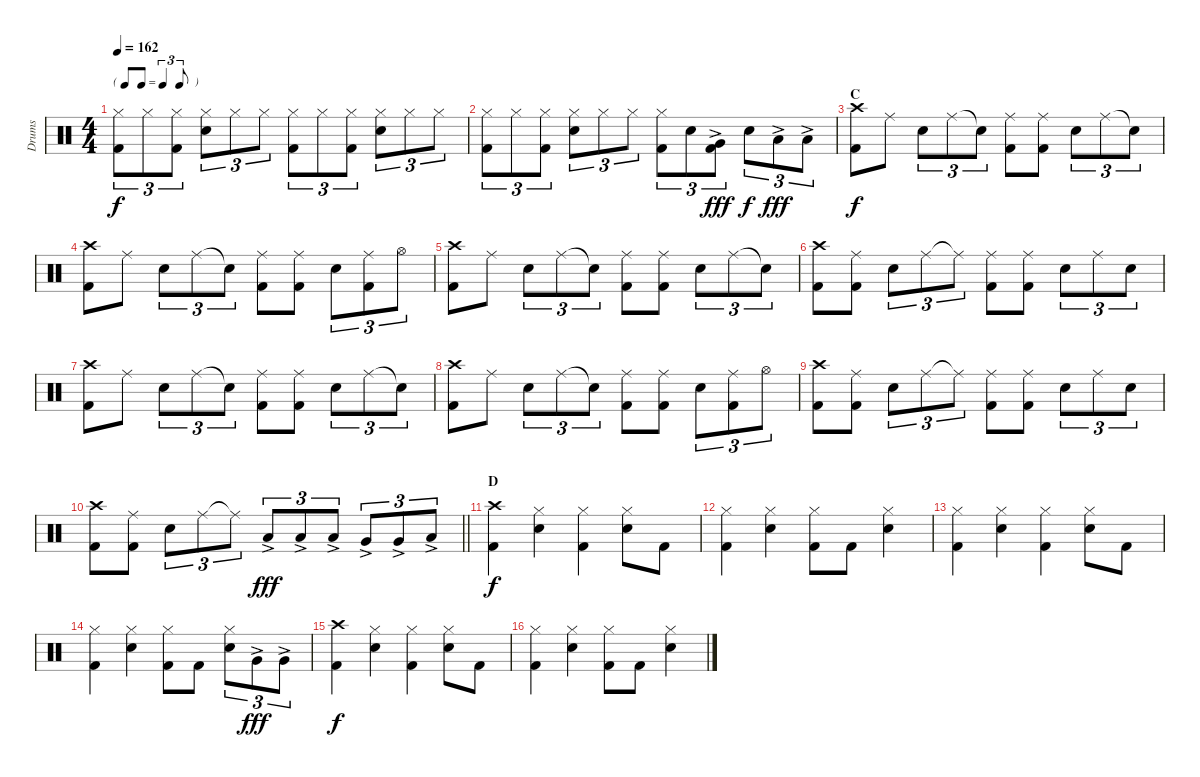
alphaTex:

\track ("Drums" "Drums") {instrument percussion}
\staff {score}
\articulation defaults
\ts (4 4)
\tf triplet8th
\tempo 162
\clef neutral
\ks c
("Hi-Hat (closed)" "Kick (hit) 2").8{tu (3 2) dy f} "Hi-Hat (closed)".8{tu (3 2)} ("Hi-Hat (closed)" "Kick (hit) 2").8{tu (3 2)} ("Hi-Hat (closed)" "Snare (hit) 2").8{tu (3 2)} "Hi-Hat (closed)".8{tu (3 2)} "Hi-Hat (closed)".8{tu (3 2)} ("Hi-Hat (closed)" "Kick (hit) 2").8{tu (3 2)} "Hi-Hat (closed)".8{tu (3 2)} ("Hi-Hat (closed)" "Kick (hit) 2").8{tu (3 2)} ("Hi-Hat (closed)" "Snare (hit) 2").8{tu (3 2)} "Hi-Hat (closed)".8{tu (3 2)} "Hi-Hat (closed)".8{tu (3 2)} |
("Hi-Hat (closed)" "Kick (hit) 2").8{tu (3 2)} "Hi-Hat (closed)".8{tu (3 2)} ("Hi-Hat (closed)" "Kick (hit) 2").8{tu (3 2)} ("Hi-Hat (closed)" "Snare (hit) 2").8{tu (3 2)} "Hi-Hat (closed)".8{tu (3 2)} "Hi-Hat (closed)".8{tu (3 2)} ("Hi-Hat (closed)" "Kick (hit) 2").8{tu (3 2)} "Snare (hit) 2".8{tu (3 2)} ("Very Low Tom (hit)"{ac} "Kick (hit) 2").8{tu (3 2) dy fff} "Snare (hit) 2".8{tu (3 2) dy f} "Low Tom (hit)"{ac}.8{tu (3 2) dy fff} "Low Tom (hit)"{ac}.8{tu (3 2)} |
\section ("" "C")
("Crash high (hit)" "Kick (hit) 2").8{dy f} "Ride (middle)".8 "Snare (hit) 2".8{tu (3 2)} "Ride (middle)".8{tu (3 2)} "Snare (hit)"{t}.8{tu (3 2)} ("Ride (middle)" "Kick (hit) 2").8 ("Ride (middle)" "Kick (hit) 2").8 "Snare (hit) 2".8{tu (3 2)} "Ride (middle)".8{tu (3 2)} "Snare (hit)"{t}.8{tu (3 2)} |
("Crash high (hit)" "Kick (hit) 2").8 "Ride (middle)".8 "Snare (hit) 2".8{tu (3 2)} "Ride (middle)".8{tu (3 2)} "Snare (hit)"{t}.8{tu (3 2)} ("Ride (middle)" "Kick (hit) 2").8 ("Ride (middle)" "Kick (hit) 2").8 "Snare (hit) 2".8{tu (3 2)} ("Ride (middle)" "Kick (hit) 2").8{tu (3 2)} "Hi-Hat (open)".8{tu (3 2)} |
("Crash high (hit)" "Kick (hit) 2").8 "Ride (middle)".8 "Snare (hit) 2".8{tu (3 2)} "Ride (middle)".8{tu (3 2)} "Snare (hit)"{t}.8{tu (3 2)} ("Ride (middle)" "Kick (hit) 2").8 ("Ride (middle)" "Kick (hit) 2").8 "Snare (hit) 2".8{tu (3 2)} "Ride (middle)".8{tu (3 2)} "Snare (hit)"{t}.8{tu (3 2)} |
("Crash high (hit)" "Kick (hit) 2").8 ("Ride (middle)" "Kick (hit) 2").8 "Snare (hit) 2".8{tu (3 2)} "Ride (middle)".8{tu (3 2)} "Ride (middle)"{t}.8{tu (3 2)} ("Ride (middle)" "Kick (hit) 2").8 ("Ride (middle)" "Kick (hit) 2").8 "Snare (hit) 2".8{tu (3 2)} "Ride (middle)".8{tu (3 2)} "Snare (hit) 2".8{tu (3 2)} |
("Crash high (hit)" "Kick (hit) 2").8 "Ride (middle)".8 "Snare (hit) 2".8{tu (3 2)} "Ride (middle)".8{tu (3 2)} "Snare (hit)"{t}.8{tu (3 2)} ("Ride (middle)" "Kick (hit) 2").8 ("Ride (middle)" "Kick (hit) 2").8 "Snare (hit) 2".8{tu (3 2)} "Ride (middle)".8{tu (3 2)} "Snare (hit)"{t}.8{tu (3 2)} |
("Crash high (hit)" "Kick (hit) 2").8 "Ride (middle)".8 "Snare (hit) 2".8{tu (3 2)} "Ride (middle)".8{tu (3 2)} "Snare (hit)"{t}.8{tu (3 2)} ("Ride (middle)" "Kick (hit) 2").8 ("Ride (middle)" "Kick (hit) 2").8 "Snare (hit) 2".8{tu (3 2)} ("Ride (middle)" "Kick (hit) 2").8{tu (3 2)} "Hi-Hat (open)".8{tu (3 2)} |
("Crash high (hit)" "Kick (hit) 2").8 ("Ride (middle)" "Kick (hit) 2").8 "Snare (hit) 2".8{tu (3 2)} "Ride (middle)".8{tu (3 2)} "Ride (middle)"{t}.8{tu (3 2)} ("Ride (middle)" "Kick (hit) 2").8 ("Ride (middle)" "Kick (hit) 2").8 "Snare (hit) 2".8{tu (3 2)} "Ride (middle)".8{tu (3 2)} "Snare (hit) 2".8{tu (3 2)} |
\barLineRight lightlight
("Crash high (hit)" "Kick (hit) 2").8 ("Ride (middle)" "Kick (hit) 2").8 "Snare (hit) 2".8{tu (3 2)} "Ride (middle)".8{tu (3 2)} "Ride (middle)"{t}.8{tu (3 2)} "Low Tom (hit)"{ac}.8{tu (3 2) dy fff} "Low Tom (hit)"{ac}.8{tu (3 2)} "Low Tom (hit)"{ac}.8{tu (3 2)} "Very Low Tom (hit)"{ac}.8{tu (3 2)} "Very Low Tom (hit)"{ac}.8{tu (3 2)} "Low Floor Tom (hit)"{ac}.8{tu (3 2)} |
\section ("" "D")
("Crash high (hit)" "Kick (hit) 2").4{dy f} ("Hi-Hat (closed)" "Snare (hit) 2").4 ("Hi-Hat (closed)" "Kick (hit) 2").4 ("Hi-Hat (closed)" "Snare (hit) 2").8 "Kick (hit) 2".8 |
("Hi-Hat (closed)" "Kick (hit) 2").4 ("Hi-Hat (closed)" "Snare (hit) 2").4 ("Hi-Hat (closed)" "Kick (hit) 2").8 "Kick (hit) 2".8 ("Hi-Hat (closed)" "Snare (hit) 2").4 |
("Hi-Hat (closed)" "Kick (hit) 2").4 ("Hi-Hat (closed)" "Snare (hit) 2").4 ("Hi-Hat (closed)" "Kick (hit) 2").4 ("Hi-Hat (closed)" "Snare (hit) 2").8 "Kick (hit) 2".8 |
("Hi-Hat (closed)" "Kick (hit) 2").4 ("Hi-Hat (closed)" "Snare (hit) 2").4 ("Hi-Hat (closed)" "Kick (hit) 2").8 "Kick (hit) 2".8 ("Hi-Hat (closed)" "Snare (hit) 2").8{tu (3 2)} "Very Low Tom (hit)"{ac}.8{tu (3 2) dy fff} "Very Low Tom (hit)"{ac}.8{tu (3 2)} |
("Crash high (hit)" "Kick (hit) 2").4{dy f} ("Hi-Hat (closed)" "Snare (hit) 2").4 ("Hi-Hat (closed)" "Kick (hit) 2").4 ("Hi-Hat (closed)" "Snare (hit) 2").8 "Kick (hit) 2".8 |
("Hi-Hat (closed)" "Kick (hit) 2").4 ("Hi-Hat (closed)" "Snare (hit) 2").4 ("Hi-Hat (closed)" "Kick (hit) 2").8 "Kick (hit) 2".8 ("Hi-Hat (closed)" "Snare (hit) 2").4
